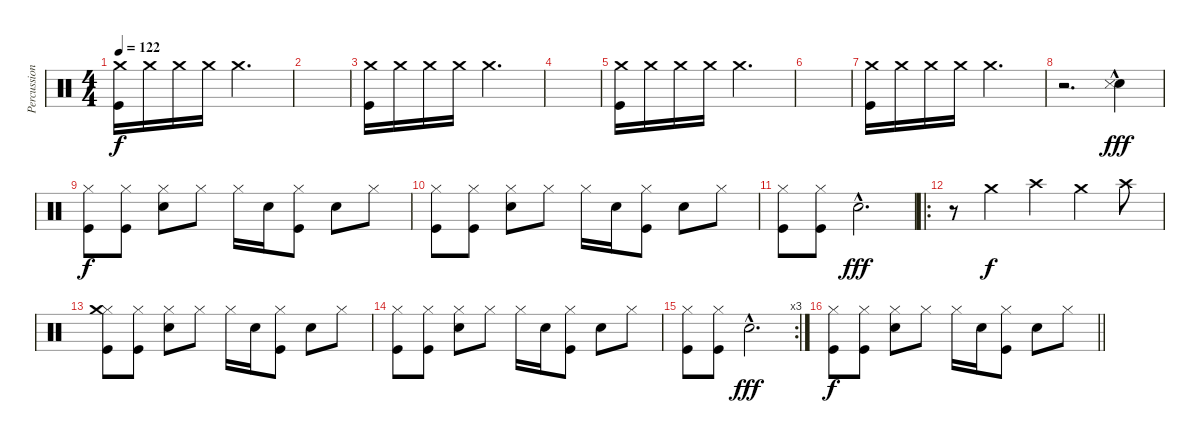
\track ("Percussion" "Percussion") {instrument percussion}
\staff {score}
\articulation defaults
\ts (4 4)
\tempo 122
\clef neutral
\ks c
("Crash medium (hit)" "Kick (hit)").16{dy f} "Crash medium (hit)".16 "Crash medium (hit)".16 "Crash medium (hit)".16 "Crash medium (hit)".2{d} |
|
("Crash medium (hit)" "Kick (hit)").16 "Crash medium (hit)".16 "Crash medium (hit)".16 "Crash medium (hit)".16 "Crash medium (hit)".2{d} |
|
("Crash medium (hit)" "Kick (hit)").16 "Crash medium (hit)".16 "Crash medium (hit)".16 "Crash medium (hit)".16 "Crash medium (hit)".2{d} |
|
("Crash medium (hit)" "Kick (hit)").16 "Crash medium (hit)".16 "Crash medium (hit)".16 "Crash medium (hit)".16 "Crash medium (hit)".2{d} |
r.2{d} ("Snare (hit) 2"{hac} "Snare (side stick) 3"{hac}).4{dy fff} |
("Hi-Hat (closed)" "Kick (hit)").8{dy f} ("Hi-Hat (closed)" "Kick (hit)").8 ("Hi-Hat (closed)" "Snare (hit) 2").8 "Hi-Hat (closed)".8 "Hi-Hat (closed)".16 "Snare (hit) 2".16 ("Hi-Hat (closed)" "Kick (hit)").8 "Snare (hit) 2".8 "Hi-Hat (closed)".8 |
("Hi-Hat (closed)" "Kick (hit)").8 ("Hi-Hat (closed)" "Kick (hit)").8 ("Hi-Hat (closed)" "Snare (hit) 2").8 "Hi-Hat (closed)".8 "Hi-Hat (closed)".16 "Snare (hit) 2".16 ("Hi-Hat (closed)" "Kick (hit)").8 "Snare (hit) 2".8 "Hi-Hat (closed)".8 |
("Hi-Hat (closed)" "Kick (hit)").8 ("Hi-Hat (closed)" "Kick (hit)").8 "Snare (hit) 2"{hac}.2{d dy fff} |
\ro
r.8 "Crash medium (hit)".4{dy f} "Crash high (hit)".4 "Crash medium (hit)".4 "Crash high (hit)".8 |
("Hi-Hat (closed)" "Crash medium (hit)" "Kick (hit)").8 ("Hi-Hat (closed)" "Kick (hit)").8 ("Hi-Hat (closed)" "Snare (hit) 2").8 "Hi-Hat (closed)".8 "Hi-Hat (closed)".16 "Snare (hit) 2".16 ("Hi-Hat (closed)" "Kick (hit)").8 "Snare (hit) 2".8 "Hi-Hat (closed)".8 |
("Hi-Hat (closed)" "Kick (hit)").8 ("Hi-Hat (closed)" "Kick (hit)").8 ("Hi-Hat (closed)" "Snare (hit) 2").8 "Hi-Hat (closed)".8 "Hi-Hat (closed)".16 "Snare (hit) 2".16 ("Hi-Hat (closed)" "Kick (hit)").8 "Snare (hit) 2".8 "Hi-Hat (closed)".8 |
\rc 3
("Hi-Hat (closed)" "Kick (hit)").8 ("Hi-Hat (closed)" "Kick (hit)").8 "Snare (hit) 2"{hac}.2{d dy fff} |
\barLineRight lightlight
("Hi-Hat (closed)" "Kick (hit)").8{dy f} ("Hi-Hat (closed)" "Kick (hit)").8 ("Hi-Hat (closed)" "Snare (hit) 2").8 "Hi-Hat (closed)".8 "Hi-Hat (closed)".16 "Snare (hit) 2".16 ("Hi-Hat (closed)" "Kick (hit)").8 "Snare (hit) 2".8 "Hi-Hat (closed)".8
